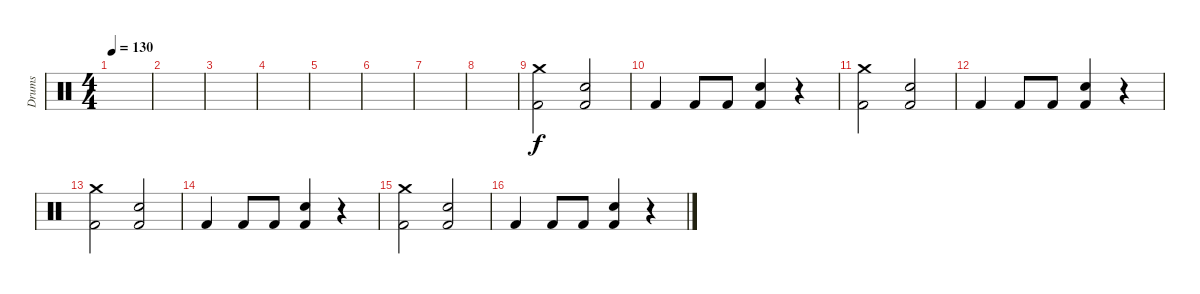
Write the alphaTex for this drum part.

\track ("Drums" "Drums") {instrument percussion}
\staff {score}
\articulation defaults
\ts (4 4)
\tempo 130
\clef neutral
\ks c
|
|
|
|
|
|
|
|
("Crash medium (hit)" "Kick (hit) 2").2 ("Kick (hit) 2" "Snare (hit) 2").2 |
"Kick (hit) 2".4 "Kick (hit) 2".8 "Kick (hit) 2".8 ("Kick (hit) 2" "Snare (hit) 2").4 r.4 |
("Crash medium (hit)" "Kick (hit) 2").2 ("Kick (hit) 2" "Snare (hit) 2").2 |
"Kick (hit) 2".4 "Kick (hit) 2".8 "Kick (hit) 2".8 ("Kick (hit) 2" "Snare (hit) 2").4 r.4 |
("Crash medium (hit)" "Kick (hit) 2").2 ("Kick (hit) 2" "Snare (hit) 2").2 |
"Kick (hit) 2".4 "Kick (hit) 2".8 "Kick (hit) 2".8 ("Kick (hit) 2" "Snare (hit) 2").4 r.4 |
("Crash medium (hit)" "Kick (hit) 2").2 ("Kick (hit) 2" "Snare (hit) 2").2 |
"Kick (hit) 2".4 "Kick (hit) 2".8 "Kick (hit) 2".8 ("Kick (hit) 2" "Snare (hit) 2").4 r.4
